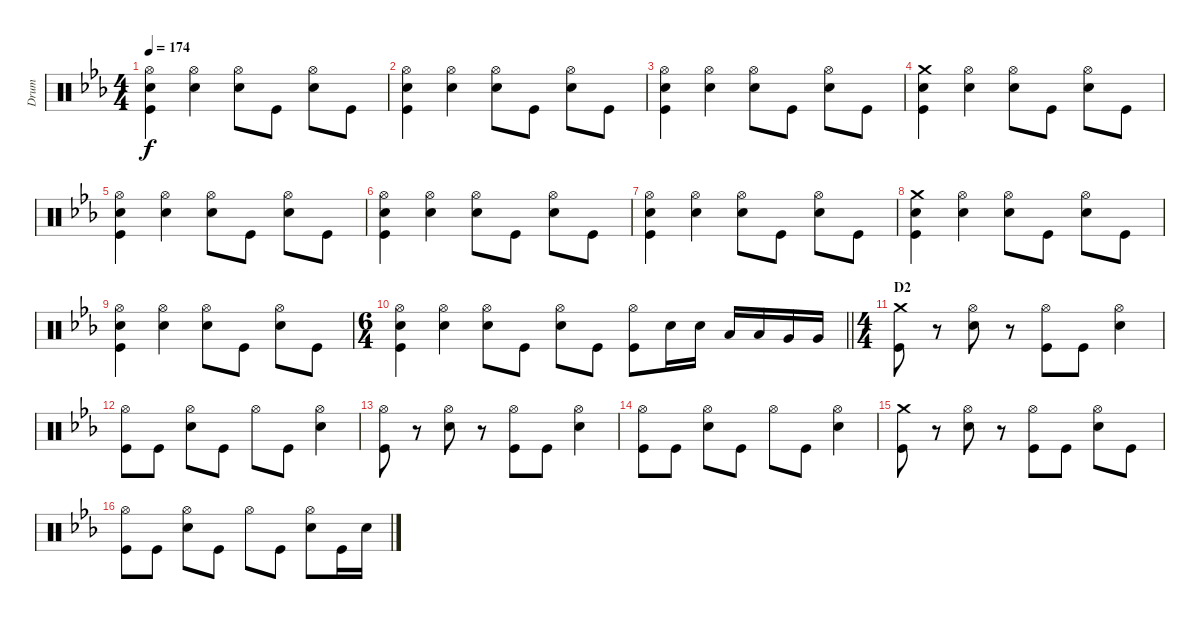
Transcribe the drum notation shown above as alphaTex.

\track ("Drum" "Drum") {instrument percussion}
\staff {score}
\articulation defaults
\ts (4 4)
\tempo 174
\clef neutral
\ks eb
("Hi-Hat (open)" "Snare (hit) 2" "Kick (hit)").4{dy f} ("Hi-Hat (open)" "Snare (hit) 2").4 ("Hi-Hat (open)" "Snare (hit) 2").8 "Kick (hit)".8 ("Hi-Hat (open)" "Snare (hit) 2").8 "Kick (hit)".8 |
("Hi-Hat (open)" "Snare (hit) 2" "Kick (hit)").4 ("Hi-Hat (open)" "Snare (hit) 2").4 ("Hi-Hat (open)" "Snare (hit) 2").8 "Kick (hit)".8 ("Hi-Hat (open)" "Snare (hit) 2").8 "Kick (hit)".8 |
("Hi-Hat (open)" "Snare (hit) 2" "Kick (hit)").4 ("Hi-Hat (open)" "Snare (hit) 2").4 ("Hi-Hat (open)" "Snare (hit) 2").8 "Kick (hit)".8 ("Hi-Hat (open)" "Snare (hit) 2").8 "Kick (hit)".8 |
("Crash medium (hit)" "Snare (hit) 2" "Kick (hit)").4 ("Hi-Hat (open)" "Snare (hit) 2").4 ("Hi-Hat (open)" "Snare (hit) 2").8 "Kick (hit)".8 ("Hi-Hat (open)" "Snare (hit) 2").8 "Kick (hit)".8 |
("Hi-Hat (open)" "Snare (hit) 2" "Kick (hit)").4 ("Hi-Hat (open)" "Snare (hit) 2").4 ("Hi-Hat (open)" "Snare (hit) 2").8 "Kick (hit)".8 ("Hi-Hat (open)" "Snare (hit) 2").8 "Kick (hit)".8 |
("Hi-Hat (open)" "Snare (hit) 2" "Kick (hit)").4 ("Hi-Hat (open)" "Snare (hit) 2").4 ("Hi-Hat (open)" "Snare (hit) 2").8 "Kick (hit)".8 ("Hi-Hat (open)" "Snare (hit) 2").8 "Kick (hit)".8 |
("Hi-Hat (open)" "Snare (hit) 2" "Kick (hit)").4 ("Hi-Hat (open)" "Snare (hit) 2").4 ("Hi-Hat (open)" "Snare (hit) 2").8 "Kick (hit)".8 ("Hi-Hat (open)" "Snare (hit) 2").8 "Kick (hit)".8 |
("Crash medium (hit)" "Snare (hit) 2" "Kick (hit)").4 ("Hi-Hat (open)" "Snare (hit) 2").4 ("Hi-Hat (open)" "Snare (hit) 2").8 "Kick (hit)".8 ("Hi-Hat (open)" "Snare (hit) 2").8 "Kick (hit)".8 |
("Hi-Hat (open)" "Snare (hit) 2" "Kick (hit)").4 ("Hi-Hat (open)" "Snare (hit) 2").4 ("Hi-Hat (open)" "Snare (hit) 2").8 "Kick (hit)".8 ("Hi-Hat (open)" "Snare (hit) 2").8 "Kick (hit)".8 |
\ts (6 4)
\barLineRight lightlight
("Hi-Hat (open)" "Snare (hit) 2" "Kick (hit)").4 ("Hi-Hat (open)" "Snare (hit) 2").4 ("Hi-Hat (open)" "Snare (hit) 2").8 "Kick (hit)".8 ("Hi-Hat (open)" "Snare (hit) 2").8 "Kick (hit)".8 ("Hi-Hat (open)" "Kick (hit)").8 "Snare (hit) 2".16 "Snare (hit) 2".16 "Low Tom (hit)".16 "Low Tom (hit)".16 "Very Low Tom (hit)".16 "Very Low Tom (hit)".16 |
\ts (4 4)
\section ("" "D2")
("Crash medium (hit)" "Kick (hit)").8 r.8 ("Hi-Hat (open)" "Snare (hit) 2").8 r.8 ("Hi-Hat (open)" "Kick (hit)").8 "Kick (hit)".8 ("Hi-Hat (open)" "Snare (hit) 2").4 |
("Hi-Hat (open)" "Kick (hit)").8 "Kick (hit)".8 ("Hi-Hat (open)" "Snare (hit) 2").8 "Kick (hit)".8 "Hi-Hat (open)".8 "Kick (hit)".8 ("Hi-Hat (open)" "Snare (hit) 2").4 |
("Hi-Hat (open)" "Kick (hit)").8 r.8 ("Hi-Hat (open)" "Snare (hit) 2").8 r.8 ("Hi-Hat (open)" "Kick (hit)").8 "Kick (hit)".8 ("Hi-Hat (open)" "Snare (hit) 2").4 |
("Hi-Hat (open)" "Kick (hit)").8 "Kick (hit)".8 ("Hi-Hat (open)" "Snare (hit) 2").8 "Kick (hit)".8 "Hi-Hat (open)".8 "Kick (hit)".8 ("Hi-Hat (open)" "Snare (hit) 2").4 |
("Crash medium (hit)" "Kick (hit)").8 r.8 ("Hi-Hat (open)" "Snare (hit) 2").8 r.8 ("Hi-Hat (open)" "Kick (hit)").8 "Kick (hit)".8 ("Hi-Hat (open)" "Snare (hit) 2").8 "Kick (hit)".8 |
("Hi-Hat (open)" "Kick (hit)").8 "Kick (hit)".8 ("Hi-Hat (open)" "Snare (hit) 2").8 "Kick (hit)".8 "Hi-Hat (open)".8 "Kick (hit)".8 ("Hi-Hat (open)" "Snare (hit) 2").8 "Kick (hit)".16 "Snare (hit) 2".16
